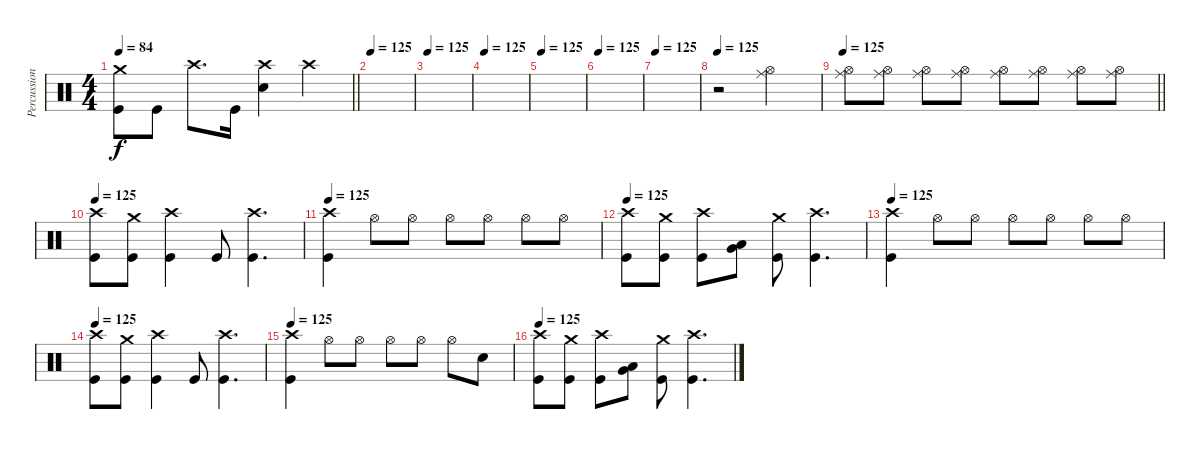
\track ("Percussions" "Percussion") {instrument percussion}
\staff {score}
\articulation defaults
\ts (4 4)
\tempo 84
\clef neutral
\barLineRight lightlight
\ks c
("Crash medium (hit)" "Kick (hit)").8{dy f} "Kick (hit)".8 "Crash high (hit)".8{d} "Kick (hit)".16 ("Electric Snare (hit)" "Crash high (hit)").4 "Crash high (hit)".4 |
\section ("" "")
\tempo 125
|
\tempo 125
|
\tempo 125
|
\tempo 125
|
\tempo 125
|
\tempo 125
|
\tempo 125
r.2 ("Hi-Hat (open)" "Ride (middle)").2 |
\tempo 125
\barLineRight lightlight
("Hi-Hat (open)" "Ride (middle)").8 ("Hi-Hat (open)" "Ride (middle)").8 ("Hi-Hat (open)" "Ride (middle)").8 ("Hi-Hat (open)" "Ride (middle)").8 ("Hi-Hat (open)" "Ride (middle)").8 ("Hi-Hat (open)" "Ride (middle)").8 ("Hi-Hat (open)" "Ride (middle)").8 ("Hi-Hat (open)" "Ride (middle)").8 |
\section ("" "")
\tempo 125
("Crash high (hit)" "Kick (hit)").8 ("Crash medium (hit)" "Kick (hit)").8 ("Crash high (hit)" "Kick (hit)").4 "Kick (hit)".8 ("Crash high (hit)" "Kick (hit)").4{d} |
\tempo 125
("Crash high (hit)" "Kick (hit)").4 "Hi-Hat (open)".8 "Hi-Hat (open)".8 "Hi-Hat (open)".8 "Hi-Hat (open)".8 "Hi-Hat (open)".8 "Hi-Hat (open)".8 |
\tempo 125
("Crash high (hit)" "Kick (hit)").8 ("Crash medium (hit)" "Kick (hit)").8 ("Crash high (hit)" "Kick (hit)").8 ("Very Low Tom (hit)" "Low Floor Tom (hit)").8 ("Crash medium (hit)" "Kick (hit)").8 ("Crash high (hit)" "Kick (hit)").4{d} |
\tempo 125
("Crash high (hit)" "Kick (hit)").4 "Hi-Hat (open)".8 "Hi-Hat (open)".8 "Hi-Hat (open)".8 "Hi-Hat (open)".8 "Hi-Hat (open)".8 "Hi-Hat (open)".8 |
\tempo 125
("Crash high (hit)" "Kick (hit)").8 ("Crash medium (hit)" "Kick (hit)").8 ("Crash high (hit)" "Kick (hit)").4 "Kick (hit)".8 ("Crash high (hit)" "Kick (hit)").4{d} |
\tempo 125
("Crash high (hit)" "Kick (hit)").4 "Hi-Hat (open)".8 "Hi-Hat (open)".8 "Hi-Hat (open)".8 "Hi-Hat (open)".8 "Hi-Hat (open)".8 "Electric Snare (hit)".8 |
\tempo 125
("Crash high (hit)" "Kick (hit)").8 ("Crash medium (hit)" "Kick (hit)").8 ("Crash high (hit)" "Kick (hit)").8 ("Very Low Tom (hit)" "Low Floor Tom (hit)").8 ("Crash medium (hit)" "Kick (hit)").8 ("Crash high (hit)" "Kick (hit)").4{d}
